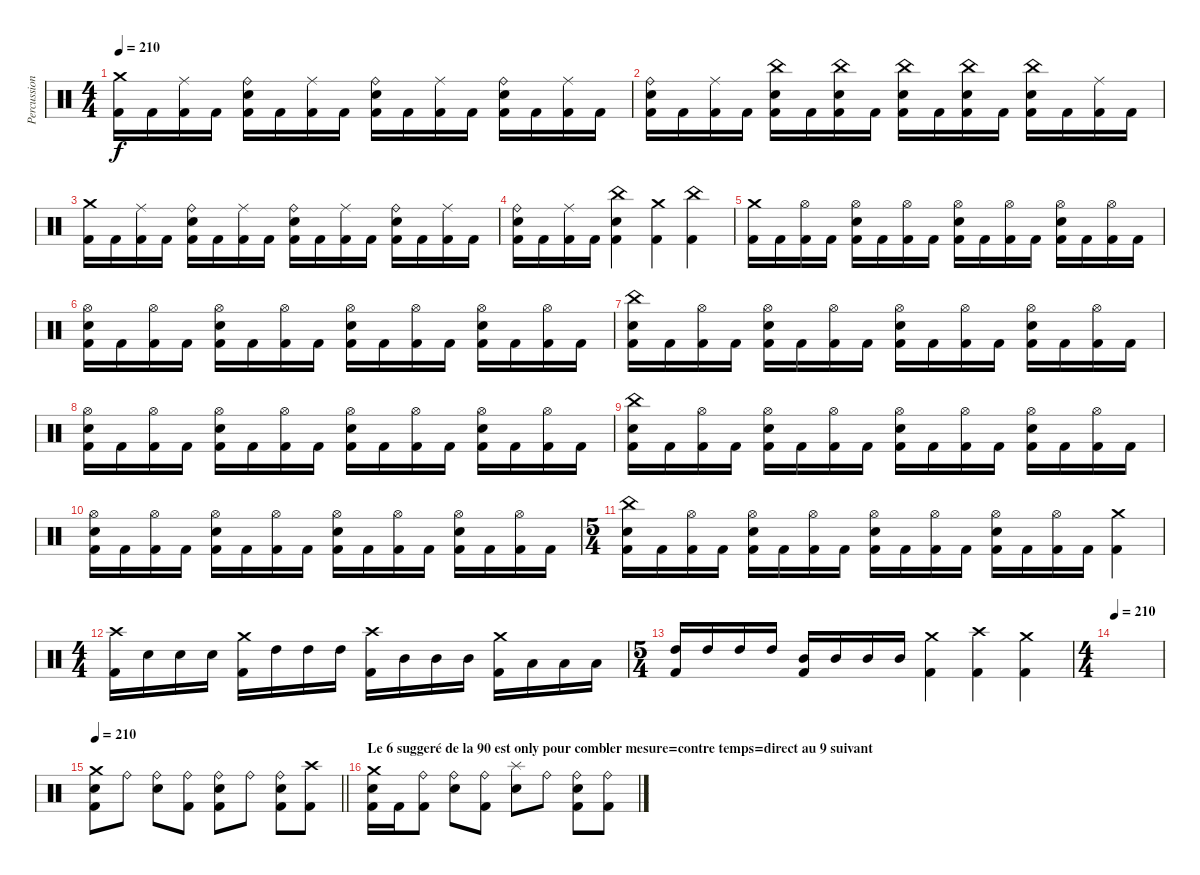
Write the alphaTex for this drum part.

\track ("Percussions" "Percussion") {instrument percussion}
\staff {score}
\articulation defaults
\ts (4 4)
\tempo 210
\clef neutral
\ks c
("Crash medium (hit)" "Kick (hit) 2").16{dy f} "Kick (hit) 2".16 ("Ride (middle)" "Kick (hit) 2").16 "Kick (hit) 2".16 ("Ride (bell)" "Electric Snare (hit)" "Kick (hit) 2").16 "Kick (hit) 2".16 ("Ride (middle)" "Kick (hit) 2").16 "Kick (hit) 2".16 ("Ride (bell)" "Electric Snare (hit)" "Kick (hit) 2").16 "Kick (hit) 2".16 ("Ride (middle)" "Kick (hit) 2").16 "Kick (hit) 2".16 ("Ride (bell)" "Electric Snare (hit)" "Kick (hit) 2").16 "Kick (hit) 2".16 ("Ride (middle)" "Kick (hit) 2").16 "Kick (hit) 2".16 |
("Ride (bell)" "Electric Snare (hit)" "Kick (hit) 2").16 "Kick (hit) 2".16 ("Ride (middle)" "Kick (hit) 2").16 "Kick (hit) 2".16 ("China (hit)" "Electric Snare (hit)" "Kick (hit) 2").16 "Kick (hit) 2".16 ("China (hit)" "Electric Snare (hit)" "Kick (hit) 2").16 "Kick (hit) 2".16 ("China (hit)" "Electric Snare (hit)" "Kick (hit) 2").16 "Kick (hit) 2".16 ("China (hit)" "Electric Snare (hit)" "Kick (hit) 2").16 "Kick (hit) 2".16 ("China (hit)" "Electric Snare (hit)" "Kick (hit) 2").16 "Kick (hit) 2".16 ("Ride (middle)" "Kick (hit) 2").16 "Kick (hit) 2".16 |
("Crash medium (hit)" "Kick (hit) 2").16 "Kick (hit) 2".16 ("Ride (middle)" "Kick (hit) 2").16 "Kick (hit) 2".16 ("Ride (bell)" "Electric Snare (hit)" "Kick (hit) 2").16 "Kick (hit) 2".16 ("Ride (middle)" "Kick (hit) 2").16 "Kick (hit) 2".16 ("Ride (bell)" "Electric Snare (hit)" "Kick (hit) 2").16 "Kick (hit) 2".16 ("Ride (middle)" "Kick (hit) 2").16 "Kick (hit) 2".16 ("Ride (bell)" "Electric Snare (hit)" "Kick (hit) 2").16 "Kick (hit) 2".16 ("Ride (middle)" "Kick (hit) 2").16 "Kick (hit) 2".16 |
("Ride (bell)" "Electric Snare (hit)" "Kick (hit) 2").16 "Kick (hit) 2".16 ("Ride (middle)" "Kick (hit) 2").16 "Kick (hit) 2".16 ("China (hit)" "Electric Snare (hit)" "Kick (hit) 2").4 ("Crash medium (hit)" "Kick (hit) 2").4 ("China (hit)" "Kick (hit) 2").4 |
("Crash medium (hit)" "Kick (hit) 2").16 "Kick (hit) 2".16 ("Hi-Hat (open)" "Kick (hit) 2").16 "Kick (hit) 2".16 ("Hi-Hat (open)" "Electric Snare (hit)" "Kick (hit) 2").16 "Kick (hit) 2".16 ("Hi-Hat (open)" "Kick (hit) 2").16 "Kick (hit) 2".16 ("Hi-Hat (open)" "Electric Snare (hit)" "Kick (hit) 2").16 "Kick (hit) 2".16 ("Hi-Hat (open)" "Kick (hit) 2").16 "Kick (hit) 2".16 ("Hi-Hat (open)" "Electric Snare (hit)" "Kick (hit) 2").16 "Kick (hit) 2".16 ("Hi-Hat (open)" "Kick (hit) 2").16 "Kick (hit) 2".16 |
("Hi-Hat (open)" "Electric Snare (hit)" "Kick (hit) 2").16 "Kick (hit) 2".16 ("Hi-Hat (open)" "Kick (hit) 2").16 "Kick (hit) 2".16 ("Hi-Hat (open)" "Electric Snare (hit)" "Kick (hit) 2").16 "Kick (hit) 2".16 ("Hi-Hat (open)" "Kick (hit) 2").16 "Kick (hit) 2".16 ("Hi-Hat (open)" "Electric Snare (hit)" "Kick (hit) 2").16 "Kick (hit) 2".16 ("Hi-Hat (open)" "Kick (hit) 2").16 "Kick (hit) 2".16 ("Hi-Hat (open)" "Electric Snare (hit)" "Kick (hit) 2").16 "Kick (hit) 2".16 ("Hi-Hat (open)" "Kick (hit) 2").16 "Kick (hit) 2".16 |
("China (hit)" "Electric Snare (hit)" "Kick (hit) 2").16 "Kick (hit) 2".16 ("Hi-Hat (open)" "Kick (hit) 2").16 "Kick (hit) 2".16 ("Hi-Hat (open)" "Electric Snare (hit)" "Kick (hit) 2").16 "Kick (hit) 2".16 ("Hi-Hat (open)" "Kick (hit) 2").16 "Kick (hit) 2".16 ("Hi-Hat (open)" "Electric Snare (hit)" "Kick (hit) 2").16 "Kick (hit) 2".16 ("Hi-Hat (open)" "Kick (hit) 2").16 "Kick (hit) 2".16 ("Hi-Hat (open)" "Electric Snare (hit)" "Kick (hit) 2").16 "Kick (hit) 2".16 ("Hi-Hat (open)" "Kick (hit) 2").16 "Kick (hit) 2".16 |
("Hi-Hat (open)" "Electric Snare (hit)" "Kick (hit) 2").16 "Kick (hit) 2".16 ("Hi-Hat (open)" "Kick (hit) 2").16 "Kick (hit) 2".16 ("Hi-Hat (open)" "Electric Snare (hit)" "Kick (hit) 2").16 "Kick (hit) 2".16 ("Hi-Hat (open)" "Kick (hit) 2").16 "Kick (hit) 2".16 ("Hi-Hat (open)" "Electric Snare (hit)" "Kick (hit) 2").16 "Kick (hit) 2".16 ("Hi-Hat (open)" "Kick (hit) 2").16 "Kick (hit) 2".16 ("Hi-Hat (open)" "Electric Snare (hit)" "Kick (hit) 2").16 "Kick (hit) 2".16 ("Hi-Hat (open)" "Kick (hit) 2").16 "Kick (hit) 2".16 |
("China (hit)" "Electric Snare (hit)" "Kick (hit) 2").16 "Kick (hit) 2".16 ("Hi-Hat (open)" "Kick (hit) 2").16 "Kick (hit) 2".16 ("Hi-Hat (open)" "Electric Snare (hit)" "Kick (hit) 2").16 "Kick (hit) 2".16 ("Hi-Hat (open)" "Kick (hit) 2").16 "Kick (hit) 2".16 ("Hi-Hat (open)" "Electric Snare (hit)" "Kick (hit) 2").16 "Kick (hit) 2".16 ("Hi-Hat (open)" "Kick (hit) 2").16 "Kick (hit) 2".16 ("Hi-Hat (open)" "Electric Snare (hit)" "Kick (hit) 2").16 "Kick (hit) 2".16 ("Hi-Hat (open)" "Kick (hit) 2").16 "Kick (hit) 2".16 |
("Hi-Hat (open)" "Electric Snare (hit)" "Kick (hit) 2").16 "Kick (hit) 2".16 ("Hi-Hat (open)" "Kick (hit) 2").16 "Kick (hit) 2".16 ("Hi-Hat (open)" "Electric Snare (hit)" "Kick (hit) 2").16 "Kick (hit) 2".16 ("Hi-Hat (open)" "Kick (hit) 2").16 "Kick (hit) 2".16 ("Hi-Hat (open)" "Electric Snare (hit)" "Kick (hit) 2").16 "Kick (hit) 2".16 ("Hi-Hat (open)" "Kick (hit) 2").16 "Kick (hit) 2".16 ("Hi-Hat (open)" "Electric Snare (hit)" "Kick (hit) 2").16 "Kick (hit) 2".16 ("Hi-Hat (open)" "Kick (hit) 2").16 "Kick (hit) 2".16 |
\ts (5 4)
("China (hit)" "Electric Snare (hit)" "Kick (hit) 2").16 "Kick (hit) 2".16 ("Hi-Hat (open)" "Kick (hit) 2").16 "Kick (hit) 2".16 ("Hi-Hat (open)" "Electric Snare (hit)" "Kick (hit) 2").16 "Kick (hit) 2".16 ("Hi-Hat (open)" "Kick (hit) 2").16 "Kick (hit) 2".16 ("Hi-Hat (open)" "Electric Snare (hit)" "Kick (hit) 2").16 "Kick (hit) 2".16 ("Hi-Hat (open)" "Kick (hit) 2").16 "Kick (hit) 2".16 ("Hi-Hat (open)" "Electric Snare (hit)" "Kick (hit) 2").16 "Kick (hit) 2".16 ("Hi-Hat (open)" "Kick (hit) 2").16 "Kick (hit) 2".16 ("Crash medium (hit)" "Kick (hit) 2").4 |
\ts (4 4)
("Crash high (hit)" "Kick (hit) 2").16 "Electric Snare (hit)".16 "Electric Snare (hit)".16 "Electric Snare (hit)".16 ("Crash medium (hit)" "Kick (hit) 2").16 "High Tom (hit)".16 "High Tom (hit)".16 "High Tom (hit)".16 ("Crash high (hit)" "Kick (hit) 2").16 "Mid Tom (hit)".16 "Mid Tom (hit)".16 "Mid Tom (hit)".16 ("Crash medium (hit)" "Kick (hit) 2").16 "Low Tom (hit)".16 "Low Tom (hit)".16 "Low Tom (hit)".16 |
\ts (5 4)
("High Tom (hit)" "Kick (hit) 2").16 "High Tom (hit)".16 "High Tom (hit)".16 "High Tom (hit)".16 ("Mid Tom (hit)" "Kick (hit) 2").16 "Mid Tom (hit)".16 "Mid Tom (hit)".16 "Mid Tom (hit)".16 ("Crash medium (hit)" "Kick (hit) 2").4 ("Crash high (hit)" "Kick (hit) 2").4 ("Crash medium (hit)" "Kick (hit) 2").4 |
\ts (4 4)
\tempo 210
|
\tempo 210
\barLineRight lightlight
("Crash medium (hit)" "Electric Snare (hit)" "Kick (hit) 2").8 "Ride (bell)".8 ("Ride (bell)" "Electric Snare (hit)").8 ("Ride (bell)" "Kick (hit) 2").8 ("Ride (bell)" "Electric Snare (hit)" "Kick (hit) 2").8 "Ride (bell)".8 ("Ride (bell)" "Electric Snare (hit)" "Kick (hit) 2").8 ("Crash high (hit)" "Kick (hit) 2").8 |
\section ("" "Le 6 suggeré de la 90 est only pour combler mesure=contre temps=direct au 9 suivant")
("Crash medium (hit)" "Electric Snare (hit)" "Kick (hit) 2").16 "Kick (hit) 2".16 ("Ride (bell)" "Kick (hit) 2").8 ("Ride (bell)" "Electric Snare (hit)").8 ("Ride (bell)" "Kick (hit) 2").8 ("Splash (hit)" "Electric Snare (hit)").8 "Ride (bell)".8 ("Ride (bell)" "Electric Snare (hit)" "Kick (hit) 2").8 ("Ride (bell)" "Kick (hit) 2").8
